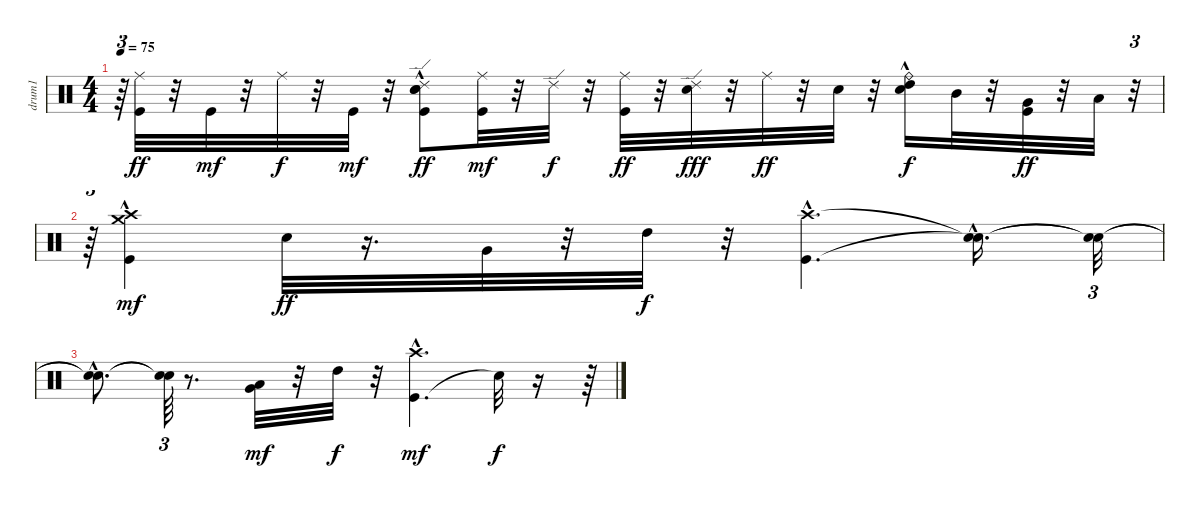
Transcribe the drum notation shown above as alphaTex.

\track ("drum1" "drum1") {instrument percussion}
\staff {score}
\articulation defaults
\ts (4 4)
\tempo 75
\clef neutral
\ks c
r.64{tu (3 2) dy f} ("Kick (hit)" "Ride (middle)").32{dy ff} r.32 "Kick (hit)".32{dy mf} r.32 "Ride (middle)".32{dy f} r.32 "Kick (hit)".32{dy mf} r.32 ("Kick (hit)" "Hand Clap (hit)"{hac} "Electric Snare (hit)" "Ride (edge) 2").8{dy ff} ("Kick (hit)" "Ride (middle)").32{dy mf} r.32 "Ride (edge) 2".32{dy f} r.32 ("Kick (hit)" "Ride (middle)").32{dy ff} r.32 ("Electric Snare (hit)" "Ride (edge) 2").32{dy fff} r.32 "Ride (middle)".32{dy ff} r.32 "Electric Snare (hit)".32 r.32 ("Hand Clap (hit)"{hac} "High Tom (hit)" "Ride (bell)").16{dy f} "Mid Tom (hit)".32 r.32 ("Kick (hit)" "Very Low Tom (hit)").32{dy ff} r.32 "Low Tom (hit)".32 r.32{tu (3 2)} |
r.64{tu (3 2)} ("Kick (hit)"{hac} "Crash high (hit)" "Crash medium (hit)").4{dy mf} "Electric Snare (hit)".32{dy ff} r.16{d} "Very Low Tom (hit)".32 r.32 "High Tom (hit)".32{dy f} r.32 ("Kick (hit)"{hac} "Crash high (hit)"{hac}).4{d} ("Snare (hit)"{hac t} "Snare (hit)"{hac t}).16{d} ("Snare (hit)"{t} "Snare (hit)"{t}).32{tu (3 2)} |
("Snare (hit)"{hac t} "Snare (hit)"{hac t}).8{d} ("Snare (hit)"{t} "Snare (hit)"{t}).64{tu (3 2)} r.8{d} ("Very Low Tom (hit)" "Low Tom (hit)").32{dy mf} r.32 "High Tom (hit)".32{dy f} r.32 ("Kick (hit)"{hac} "Crash high (hit)").4{d dy mf} "Snare (hit)"{t}.32{dy f} r.16 r.64
